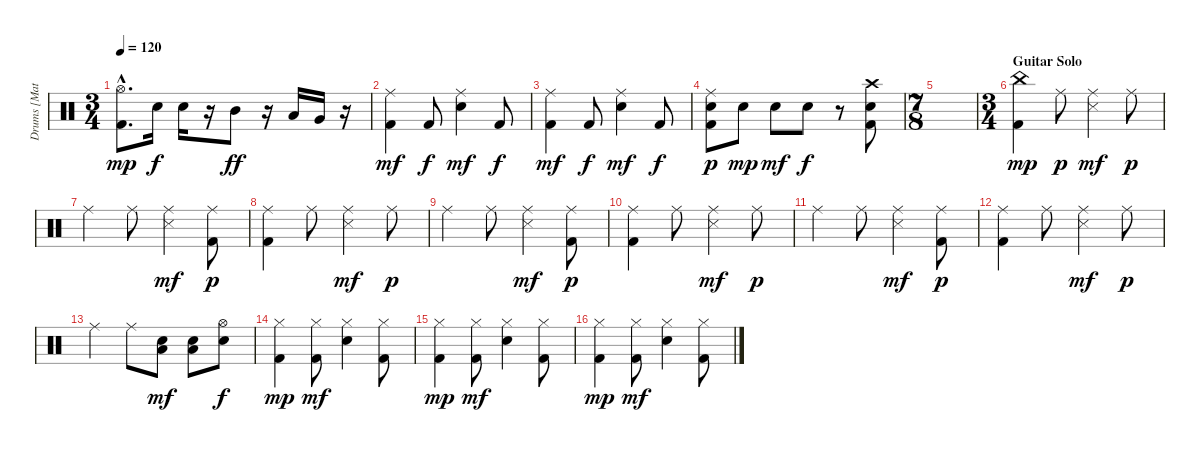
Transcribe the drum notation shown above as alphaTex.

\track ("Drums [Matt]" "Drums [Mat") {instrument percussion}
\staff {score}
\articulation defaults
\ts (3 4)
\tempo 120
\clef neutral
\ks c
("Hi-Hat (open)"{hac} "Kick (hit) 2"{hac}).8{d dy mp} "Snare (hit) 2".16{dy f} "Snare (hit) 2".16 r.16 "Mid Tom (hit)".8{dy ff} r.16 "Low Tom (hit)".16 "Very Low Tom (hit)".16 r.16 |
("Ride (middle)" "Kick (hit) 2").4{dy mf} "Kick (hit) 2".8{dy f} ("Ride (middle)" "Snare (hit) 2").4{dy mf} "Kick (hit) 2".8{dy f} |
("Ride (middle)" "Kick (hit) 2").4{dy mf} "Kick (hit) 2".8{dy f} ("Ride (middle)" "Snare (hit) 2").4{dy mf} "Kick (hit) 2".8{dy f} |
("Ride (middle)" "Snare (hit) 2" "Kick (hit) 2").8{dy p} "Snare (hit) 2".8{dy mp} "Snare (hit) 2".8{dy mf} "Snare (hit) 2".8{dy f} r.8 ("Crash high (hit)" "Snare (hit) 2" "Kick (hit) 2").8 |
\ts (7 8)
|
\ts (3 4)
\section ("" "Guitar Solo")
("China (hit)" "Kick (hit) 2").4{dy mp} "Ride (middle)".8{dy p} ("Ride (middle)" "Snare (side stick) 3").4{dy mf} "Ride (middle)".8{dy p} |
"Ride (middle)".4 "Ride (middle)".8 ("Ride (middle)" "Snare (side stick) 3").4{dy mf} ("Ride (middle)" "Kick (hit) 2").8{dy p} |
("Ride (middle)" "Kick (hit) 2").4 "Ride (middle)".8 ("Ride (middle)" "Snare (side stick) 3").4{dy mf} "Ride (middle)".8{dy p} |
"Ride (middle)".4 "Ride (middle)".8 ("Ride (middle)" "Snare (side stick) 3").4{dy mf} ("Ride (middle)" "Kick (hit) 2").8{dy p} |
("Ride (middle)" "Kick (hit) 2").4 "Ride (middle)".8 ("Ride (middle)" "Snare (side stick) 3").4{dy mf} "Ride (middle)".8{dy p} |
"Ride (middle)".4 "Ride (middle)".8 ("Ride (middle)" "Snare (side stick) 3").4{dy mf} ("Ride (middle)" "Kick (hit) 2").8{dy p} |
("Ride (middle)" "Kick (hit) 2").4 "Ride (middle)".8 ("Ride (middle)" "Snare (side stick) 3").4{dy mf} "Ride (middle)".8{dy p} |
"Ride (middle)".4 "Ride (middle)".8 ("Snare (hit) 2" "Low Tom (hit)").8{dy mf} ("Snare (hit) 2" "Low Tom (hit)").8 ("Hi-Hat (open)" "Snare (hit) 2").8{dy f} |
("Hi-Hat (closed)" "Kick (hit) 2").4{dy mp} ("Hi-Hat (closed)" "Kick (hit) 2").8{dy mf} ("Hi-Hat (closed)" "Snare (hit) 2").4 ("Hi-Hat (closed)" "Kick (hit) 2").8 |
("Hi-Hat (closed)" "Kick (hit) 2").4{dy mp} ("Hi-Hat (closed)" "Kick (hit) 2").8{dy mf} ("Hi-Hat (closed)" "Snare (hit) 2").4 ("Hi-Hat (closed)" "Kick (hit) 2").8 |
("Hi-Hat (closed)" "Kick (hit) 2").4{dy mp} ("Hi-Hat (closed)" "Kick (hit) 2").8{dy mf} ("Hi-Hat (closed)" "Snare (hit) 2").4 ("Hi-Hat (closed)" "Kick (hit) 2").8
